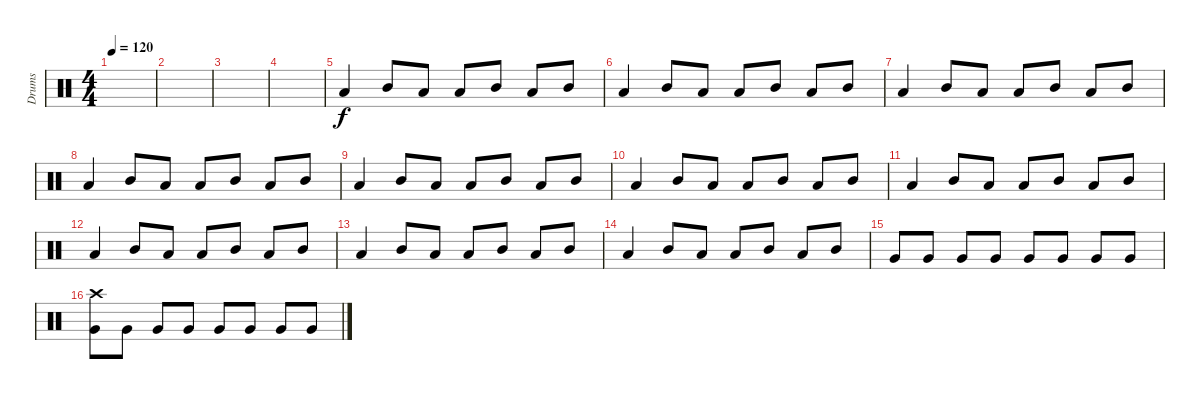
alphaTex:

\track ("Drums" "Drums") {instrument percussion}
\staff {score}
\articulation defaults
\ts (4 4)
\tempo 120
\clef neutral
\ks c
|
|
|
|
"Low Floor Tom (hit)".4{volume 12} "Mid Tom (hit)".8 "Low Tom (hit)".8 "Low Tom (hit)".8 "Mid Tom (hit)".8 "Low Tom (hit)".8 "Mid Tom (hit)".8 |
"Low Floor Tom (hit)".4 "Mid Tom (hit)".8 "Low Tom (hit)".8 "Low Tom (hit)".8 "Mid Tom (hit)".8 "Low Tom (hit)".8 "Mid Tom (hit)".8 |
"Low Floor Tom (hit)".4 "Mid Tom (hit)".8 "Low Tom (hit)".8 "Low Tom (hit)".8 "Mid Tom (hit)".8 "Low Tom (hit)".8 "Mid Tom (hit)".8 |
"Low Floor Tom (hit)".4 "Mid Tom (hit)".8 "Low Tom (hit)".8 "Low Tom (hit)".8 "Mid Tom (hit)".8 "Low Tom (hit)".8 "Mid Tom (hit)".8 |
"Low Floor Tom (hit)".4 "Mid Tom (hit)".8 "Low Tom (hit)".8 "Low Tom (hit)".8 "Mid Tom (hit)".8 "Low Tom (hit)".8 "Mid Tom (hit)".8 |
"Low Floor Tom (hit)".4 "Mid Tom (hit)".8 "Low Tom (hit)".8 "Low Tom (hit)".8 "Mid Tom (hit)".8 "Low Tom (hit)".8 "Mid Tom (hit)".8 |
"Low Floor Tom (hit)".4 "Mid Tom (hit)".8 "Low Tom (hit)".8 "Low Tom (hit)".8 "Mid Tom (hit)".8 "Low Tom (hit)".8 "Mid Tom (hit)".8 |
"Low Floor Tom (hit)".4 "Mid Tom (hit)".8 "Low Tom (hit)".8 "Low Tom (hit)".8 "Mid Tom (hit)".8 "Low Tom (hit)".8 "Mid Tom (hit)".8 |
"Low Floor Tom (hit)".4 "Mid Tom (hit)".8 "Low Tom (hit)".8 "Low Tom (hit)".8 "Mid Tom (hit)".8 "Low Tom (hit)".8 "Mid Tom (hit)".8 |
"Low Floor Tom (hit)".4 "Mid Tom (hit)".8 "Low Tom (hit)".8 "Low Tom (hit)".8 "Mid Tom (hit)".8 "Low Tom (hit)".8 "Mid Tom (hit)".8 |
"Very Low Tom (hit)".8 "Very Low Tom (hit)".8 "Very Low Tom (hit)".8 "Very Low Tom (hit)".8 "Very Low Tom (hit)".8 "Very Low Tom (hit)".8 "Very Low Tom (hit)".8 "Very Low Tom (hit)".8 |
("Crash high (hit)" "Very Low Tom (hit)").8 "Very Low Tom (hit)".8 "Very Low Tom (hit)".8 "Very Low Tom (hit)".8 "Very Low Tom (hit)".8 "Very Low Tom (hit)".8 "Very Low Tom (hit)".8 "Very Low Tom (hit)".8
